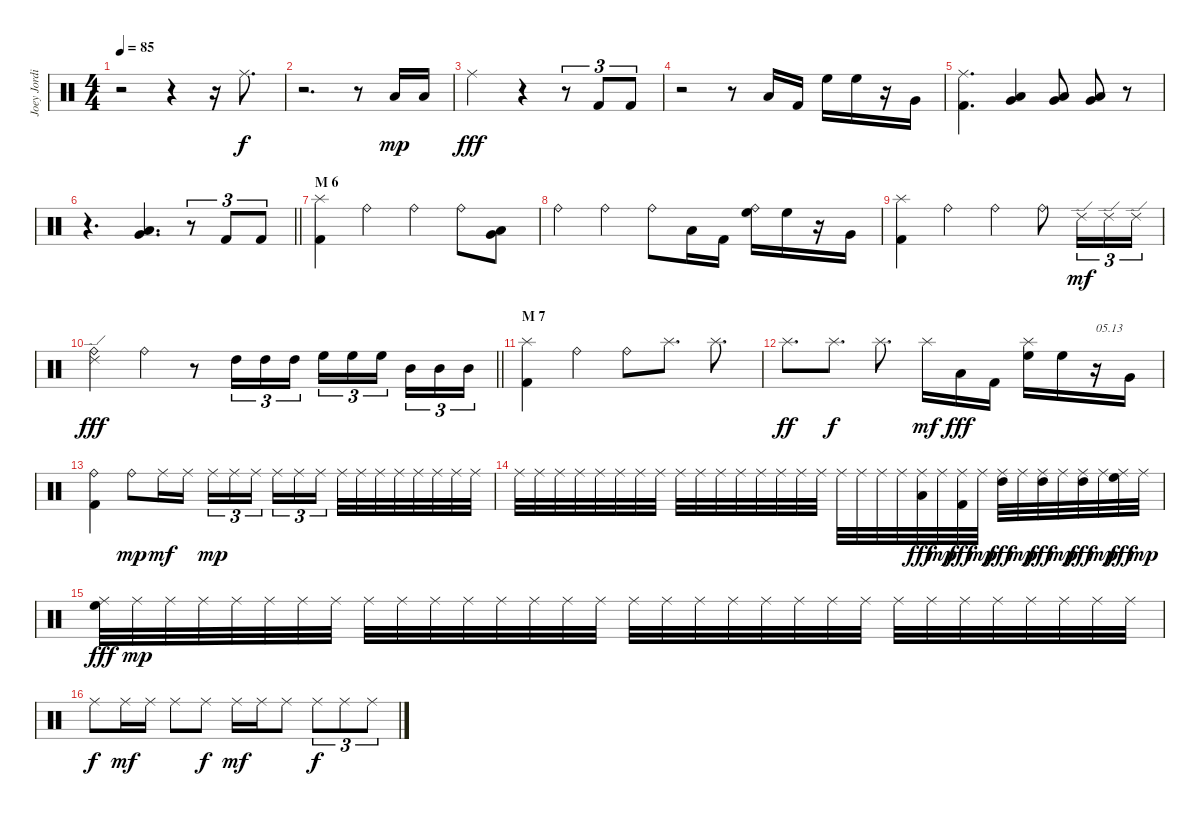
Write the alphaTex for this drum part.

\track ("Joey Jordison" "Joey Jordi") {instrument percussion}
\staff {score}
\articulation defaults
\ts (4 4)
\tempo 85
\clef neutral
\ks c
r.2{dy fff} r.4 r.16 "Ride (middle)".8{d dy f} |
r.2{d} r.8 "Low Floor Tom (hit)".16{dy mp} "Low Floor Tom (hit)".16 |
"Ride (middle)".2{dy fff} r.4 r.8{tu (3 2)} "Kick (hit) 2".8{tu (3 2)} "Kick (hit) 2".8{tu (3 2)} |
r.2 r.8 "Low Floor Tom (hit)".16 "Kick (hit) 2".16 "High Floor Tom (hit)".16 "High Floor Tom (hit)".16 r.16 "Very Low Tom (hit)".16 |
("Ride (middle)" "Kick (hit) 2").4{d} ("Very Low Tom (hit)" "Low Floor Tom (hit)").4 ("Very Low Tom (hit)" "Low Floor Tom (hit)").8 ("Very Low Tom (hit)" "Low Floor Tom (hit)").8 r.8 |
\barLineRight lightlight
r.4{d} ("Very Low Tom (hit)" "Low Floor Tom (hit)").4{d} r.8{tu (3 2)} "Kick (hit) 2".8{tu (3 2)} "Kick (hit) 2".8{tu (3 2)} |
\section ("" "M 6")
("Splash (hit)" "Kick (hit) 2").4 "Ride (bell)".4 "Ride (bell)".4 "Ride (bell)".8 ("Very Low Tom (hit)" "Low Floor Tom (hit)").8 |
"Ride (bell)".4 "Ride (bell)".4 "Ride (bell)".8 "Low Floor Tom (hit)".16 "Kick (hit) 2".16 ("Ride (bell)" "High Floor Tom (hit)").16 "High Floor Tom (hit)".16 r.16 "Very Low Tom (hit)".16 |
("Splash (hit)" "Kick (hit) 2").4 "Ride (bell)".4 "Ride (bell)".4 "Ride (bell)".8 "Ride (edge) 2".16{tu (3 2) dy mf} "Ride (edge) 2".16{tu (3 2)} "Ride (edge) 2".16{tu (3 2)} |
\barLineRight lightlight
("Ride (bell)" "Ride (edge) 2").4{dy fff} "Ride (bell)".4 r.8 "High Tom (hit)".16{tu (3 2)} "High Tom (hit)".16{tu (3 2)} "High Tom (hit)".16{tu (3 2)} "High Floor Tom (hit)".16{tu (3 2)} "High Floor Tom (hit)".16{tu (3 2)} "High Floor Tom (hit)".16{tu (3 2) beam splitsecondary} "Mid Tom (hit)".16{tu (3 2)} "Mid Tom (hit)".16{tu (3 2)} "Mid Tom (hit)".16{tu (3 2)} |
\section ("" "M 7")
("Splash (hit)" "Kick (hit) 2").4 "Ride (bell)".4 "Ride (bell)".8 "Splash (hit)".8{d} "Splash (hit)".8{d} |
"Splash (hit)".8{d dy ff} "Splash (hit)".8{d dy f} "Splash (hit)".8{d} "Splash (hit)".16{dy mf} "Low Floor Tom (hit)".16{dy fff} "Kick (hit) 2".16 ("Splash (hit)" "High Floor Tom (hit)").16 "High Floor Tom (hit)".16 r.16{txt "05.13"} "Very Low Tom (hit)".16 |
("Ride (bell)" "Kick (hit) 2").4 "Ride (bell)".8{dy mp} "Ride (middle)".16{dy mf} "Ride (middle)".16 "Ride (middle)".16{tu (3 2) dy mp} "Ride (middle)".16{tu (3 2)} "Ride (middle)".16{tu (3 2) beam splitsecondary} "Ride (middle)".16{tu (3 2)} "Ride (middle)".16{tu (3 2)} "Ride (middle)".16{tu (3 2)} "Ride (middle)".32 "Ride (middle)".32 "Ride (middle)".32 "Ride (middle)".32 "Ride (middle)".32 "Ride (middle)".32 "Ride (middle)".32 "Ride (middle)".32 |
"Ride (middle)".32 "Ride (middle)".32 "Ride (middle)".32 "Ride (middle)".32 "Ride (middle)".32 "Ride (middle)".32 "Ride (middle)".32 "Ride (middle)".32 "Ride (middle)".32 "Ride (middle)".32 "Ride (middle)".32 "Ride (middle)".32 "Ride (middle)".32 "Ride (middle)".32 "Ride (middle)".32 "Ride (middle)".32 "Ride (middle)".32 "Ride (middle)".32 "Ride (middle)".32 "Ride (middle)".32 ("Ride (middle)" "Low Floor Tom (hit)").32{dy fff} "Ride (middle)".32{dy mp} ("Ride (middle)" "Kick (hit) 2").32{dy fff} "Ride (middle)".32{dy mp} ("Ride (middle)" "High Tom (hit)").32{dy fff} "Ride (middle)".32{dy mp} ("Ride (middle)" "High Tom (hit)").32{dy fff} "Ride (middle)".32{dy mp} ("Ride (middle)" "High Tom (hit)").32{dy fff} "Ride (middle)".32{dy mp} ("Ride (middle)" "High Floor Tom (hit)").32{dy fff} "Ride (middle)".32{dy mp} |
("Ride (middle)" "High Floor Tom (hit)").32{dy fff} "Ride (middle)".32{dy mp} "Ride (middle)".32 "Ride (middle)".32 "Ride (middle)".32 "Ride (middle)".32 "Ride (middle)".32 "Ride (middle)".32 "Ride (middle)".32 "Ride (middle)".32 "Ride (middle)".32 "Ride (middle)".32 "Ride (middle)".32 "Ride (middle)".32 "Ride (middle)".32 "Ride (middle)".32 "Ride (middle)".32 "Ride (middle)".32 "Ride (middle)".32 "Ride (middle)".32 "Ride (middle)".32 "Ride (middle)".32 "Ride (middle)".32 "Ride (middle)".32 "Ride (middle)".32 "Ride (middle)".32 "Ride (middle)".32 "Ride (middle)".32 "Ride (middle)".32 "Ride (middle)".32 "Ride (middle)".32 "Ride (middle)".32 |
"Ride (middle)".8{dy f} "Ride (middle)".16{dy mf} "Ride (middle)".16 "Ride (middle)".8 "Ride (middle)".8{dy f} "Ride (middle)".16{dy mf} "Ride (middle)".16 "Ride (middle)".8 "Ride (middle)".8{tu (3 2) dy f} "Ride (middle)".8{tu (3 2)} "Ride (middle)".8{tu (3 2)}
